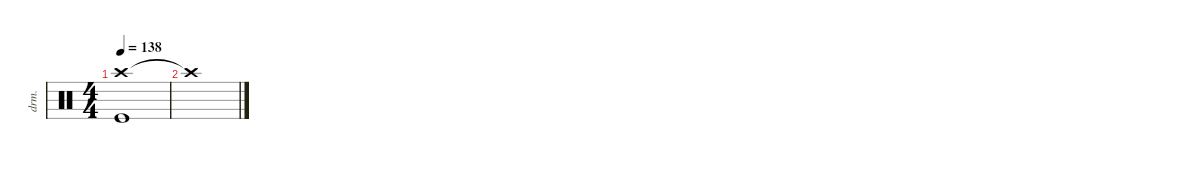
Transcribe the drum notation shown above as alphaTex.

\defaultSystemsLayout 4
\hideDynamics
\bracketExtendMode nobrackets
\track ("Percussions" "drm.") {instrument percussion}
\staff {score}
\articulation defaults
\ts (4 4)
\tempo 138
\clef neutral
\ks aminor
("Crash high (hit)" "Kick (hit)").1{dy f} |
"Crash high (hit)"{t}.1
